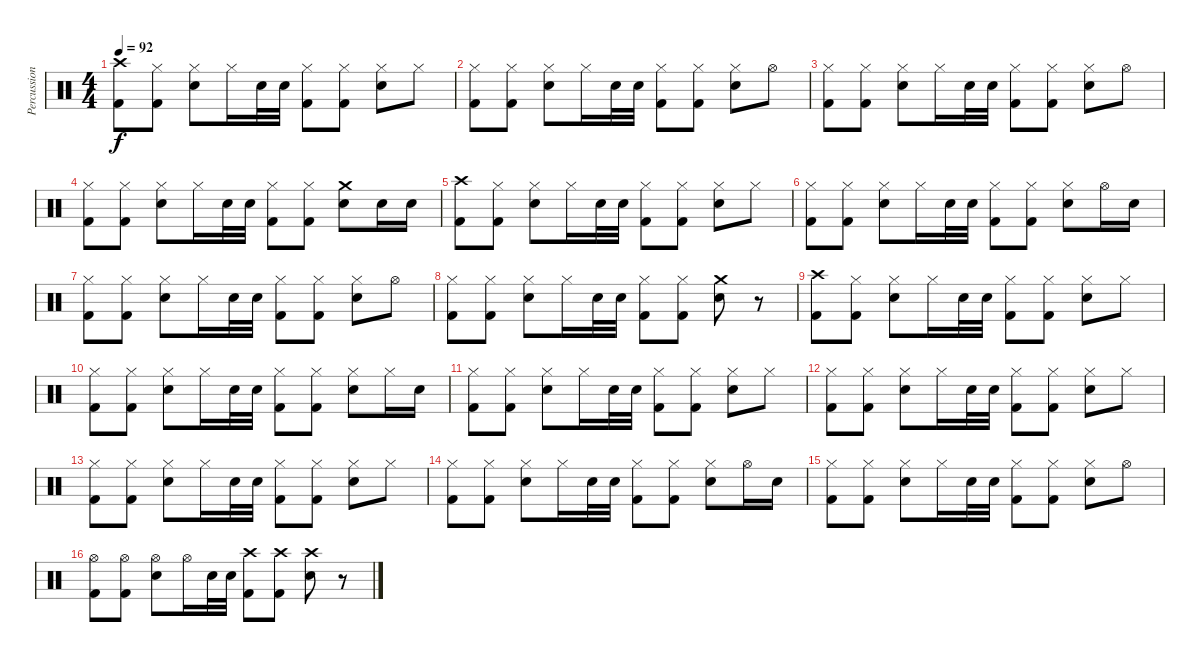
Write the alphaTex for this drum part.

\track ("Percussion" "Percussion") {instrument percussion}
\staff {score}
\articulation defaults
\ts (4 4)
\tempo 92
\clef neutral
\ks c
("Crash high (hit)" "Kick (hit) 2").8{dy f} ("Hi-Hat (closed)" "Kick (hit) 2").8 ("Hi-Hat (closed)" "Electric Snare (hit)").8 "Hi-Hat (closed)".16 "Electric Snare (hit)".32 "Electric Snare (hit)".32 ("Hi-Hat (closed)" "Kick (hit) 2").8 ("Hi-Hat (closed)" "Kick (hit) 2").8 ("Hi-Hat (closed)" "Electric Snare (hit)").8 "Hi-Hat (closed)".8 |
("Hi-Hat (closed)" "Kick (hit) 2").8 ("Hi-Hat (closed)" "Kick (hit) 2").8 ("Hi-Hat (closed)" "Electric Snare (hit)").8 "Hi-Hat (closed)".16 "Electric Snare (hit)".32 "Electric Snare (hit)".32 ("Hi-Hat (closed)" "Kick (hit) 2").8 ("Hi-Hat (closed)" "Kick (hit) 2").8 ("Hi-Hat (closed)" "Electric Snare (hit)").8 "Hi-Hat (open)".8 |
("Hi-Hat (closed)" "Kick (hit) 2").8 ("Hi-Hat (closed)" "Kick (hit) 2").8 ("Hi-Hat (closed)" "Electric Snare (hit)").8 "Hi-Hat (closed)".16 "Electric Snare (hit)".32 "Electric Snare (hit)".32 ("Hi-Hat (closed)" "Kick (hit) 2").8 ("Hi-Hat (closed)" "Kick (hit) 2").8 ("Hi-Hat (closed)" "Electric Snare (hit)").8 "Hi-Hat (open)".8 |
("Hi-Hat (closed)" "Kick (hit) 2").8 ("Hi-Hat (closed)" "Kick (hit) 2").8 ("Hi-Hat (closed)" "Electric Snare (hit)").8 "Hi-Hat (closed)".16 "Electric Snare (hit)".32 "Electric Snare (hit)".32 ("Hi-Hat (closed)" "Kick (hit) 2").8 ("Hi-Hat (closed)" "Kick (hit) 2").8 ("Crash medium (hit)" "Electric Snare (hit)").8 "Electric Snare (hit)".16 "Electric Snare (hit)".16 |
("Crash high (hit)" "Kick (hit) 2").8 ("Hi-Hat (closed)" "Kick (hit) 2").8 ("Hi-Hat (closed)" "Electric Snare (hit)").8 "Hi-Hat (closed)".16 "Electric Snare (hit)".32 "Electric Snare (hit)".32 ("Hi-Hat (closed)" "Kick (hit) 2").8 ("Hi-Hat (closed)" "Kick (hit) 2").8 ("Hi-Hat (closed)" "Electric Snare (hit)").8 "Hi-Hat (closed)".8 |
("Hi-Hat (closed)" "Kick (hit) 2").8 ("Hi-Hat (closed)" "Kick (hit) 2").8 ("Hi-Hat (closed)" "Electric Snare (hit)").8 "Hi-Hat (closed)".16 "Electric Snare (hit)".32 "Electric Snare (hit)".32 ("Hi-Hat (closed)" "Kick (hit) 2").8 ("Hi-Hat (closed)" "Kick (hit) 2").8 ("Hi-Hat (closed)" "Electric Snare (hit)").8 "Hi-Hat (open)".16 "Electric Snare (hit)".16 |
("Hi-Hat (closed)" "Kick (hit) 2").8 ("Hi-Hat (closed)" "Kick (hit) 2").8 ("Hi-Hat (closed)" "Electric Snare (hit)").8 "Hi-Hat (closed)".16 "Electric Snare (hit)".32 "Electric Snare (hit)".32 ("Hi-Hat (closed)" "Kick (hit) 2").8 ("Hi-Hat (closed)" "Kick (hit) 2").8 ("Hi-Hat (closed)" "Electric Snare (hit)").8 "Hi-Hat (open)".8 |
("Hi-Hat (closed)" "Kick (hit) 2").8 ("Hi-Hat (closed)" "Kick (hit) 2").8 ("Hi-Hat (closed)" "Electric Snare (hit)").8 "Hi-Hat (closed)".16 "Electric Snare (hit)".32 "Electric Snare (hit)".32 ("Hi-Hat (closed)" "Kick (hit) 2").8 ("Hi-Hat (closed)" "Kick (hit) 2").8 ("Crash medium (hit)" "Electric Snare (hit)").8 r.8 |
("Crash high (hit)" "Kick (hit) 2").8 ("Hi-Hat (closed)" "Kick (hit) 2").8 ("Hi-Hat (closed)" "Electric Snare (hit)").8 "Hi-Hat (closed)".16 "Electric Snare (hit)".32 "Electric Snare (hit)".32 ("Hi-Hat (closed)" "Kick (hit) 2").8 ("Hi-Hat (closed)" "Kick (hit) 2").8 ("Hi-Hat (closed)" "Electric Snare (hit)").8 "Hi-Hat (closed)".8 |
("Hi-Hat (closed)" "Kick (hit) 2").8 ("Hi-Hat (closed)" "Kick (hit) 2").8 ("Hi-Hat (closed)" "Electric Snare (hit)").8 "Hi-Hat (closed)".16 "Electric Snare (hit)".32 "Electric Snare (hit)".32 ("Hi-Hat (closed)" "Kick (hit) 2").8 ("Hi-Hat (closed)" "Kick (hit) 2").8 ("Hi-Hat (closed)" "Electric Snare (hit)").8 "Hi-Hat (closed)".16 "Electric Snare (hit)".16 |
("Hi-Hat (closed)" "Kick (hit) 2").8 ("Hi-Hat (closed)" "Kick (hit) 2").8 ("Hi-Hat (closed)" "Electric Snare (hit)").8 "Hi-Hat (closed)".16 "Electric Snare (hit)".32 "Electric Snare (hit)".32 ("Hi-Hat (closed)" "Kick (hit) 2").8 ("Hi-Hat (closed)" "Kick (hit) 2").8 ("Hi-Hat (closed)" "Electric Snare (hit)").8 "Hi-Hat (closed)".8 |
("Hi-Hat (closed)" "Kick (hit) 2").8 ("Hi-Hat (closed)" "Kick (hit) 2").8 ("Hi-Hat (closed)" "Electric Snare (hit)").8 "Hi-Hat (closed)".16 "Electric Snare (hit)".32 "Electric Snare (hit)".32 ("Hi-Hat (closed)" "Kick (hit) 2").8 ("Hi-Hat (closed)" "Kick (hit) 2").8 ("Hi-Hat (closed)" "Electric Snare (hit)").8 "Hi-Hat (closed)".8 |
("Hi-Hat (closed)" "Kick (hit) 2").8 ("Hi-Hat (closed)" "Kick (hit) 2").8 ("Hi-Hat (closed)" "Electric Snare (hit)").8 "Hi-Hat (closed)".16 "Electric Snare (hit)".32 "Electric Snare (hit)".32 ("Hi-Hat (closed)" "Kick (hit) 2").8 ("Hi-Hat (closed)" "Kick (hit) 2").8 ("Hi-Hat (closed)" "Electric Snare (hit)").8 "Hi-Hat (closed)".8 |
("Hi-Hat (closed)" "Kick (hit) 2").8 ("Hi-Hat (closed)" "Kick (hit) 2").8 ("Hi-Hat (closed)" "Electric Snare (hit)").8 "Hi-Hat (closed)".16 "Electric Snare (hit)".32 "Electric Snare (hit)".32 ("Hi-Hat (closed)" "Kick (hit) 2").8 ("Hi-Hat (closed)" "Kick (hit) 2").8 ("Hi-Hat (closed)" "Electric Snare (hit)").8 "Hi-Hat (open)".16 "Electric Snare (hit)".16 |
("Hi-Hat (closed)" "Kick (hit) 2").8 ("Hi-Hat (closed)" "Kick (hit) 2").8 ("Hi-Hat (closed)" "Electric Snare (hit)").8 "Hi-Hat (closed)".16 "Electric Snare (hit)".32 "Electric Snare (hit)".32 ("Hi-Hat (closed)" "Kick (hit) 2").8 ("Hi-Hat (closed)" "Kick (hit) 2").8 ("Hi-Hat (closed)" "Electric Snare (hit)").8 "Hi-Hat (open)".8 |
("Hi-Hat (open)" "Kick (hit) 2").8 ("Hi-Hat (open)" "Kick (hit) 2").8 ("Hi-Hat (open)" "Electric Snare (hit)").8 "Hi-Hat (open)".16 "Electric Snare (hit)".32 "Electric Snare (hit)".32 ("Crash high (hit)" "Kick (hit) 2").8 ("Crash high (hit)" "Kick (hit) 2").8 ("Crash high (hit)" "Electric Snare (hit)").8 r.8
